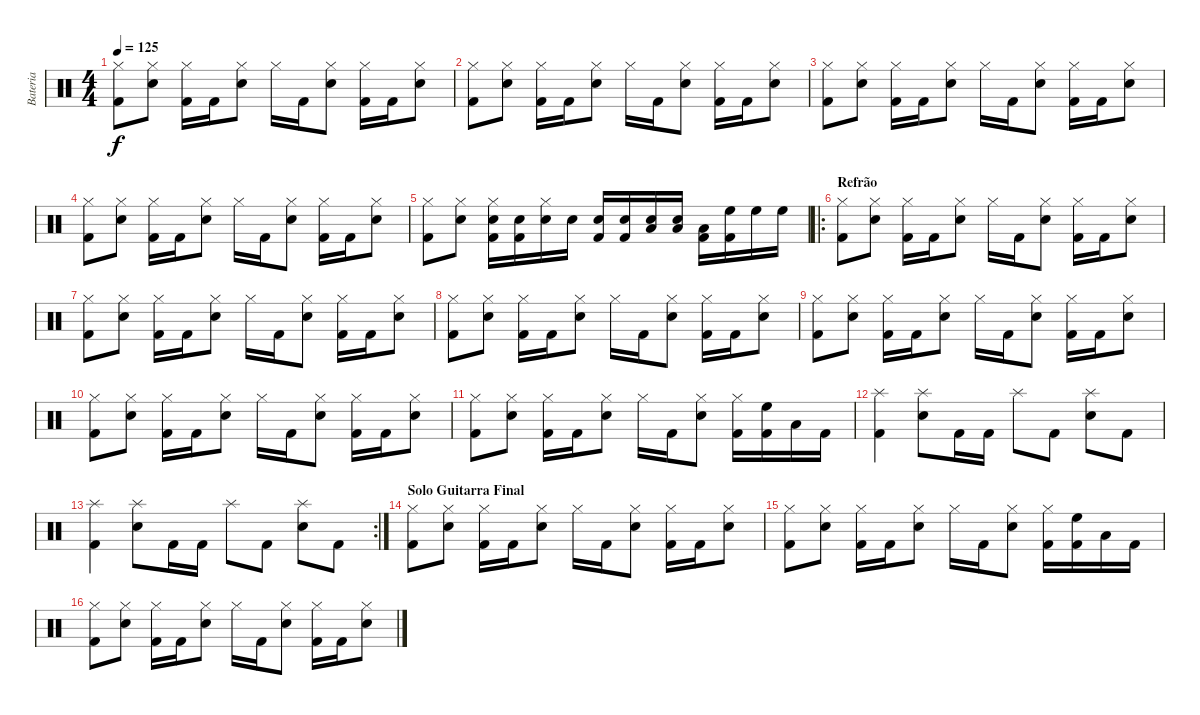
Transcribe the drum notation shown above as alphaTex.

\track ("Bateria" "Bateria") {instrument percussion}
\staff {score}
\articulation defaults
\ts (4 4)
\tempo 125
\clef neutral
\ks c
("Hi-Hat (closed)" "Kick (hit) 2").8{dy f} ("Hi-Hat (closed)" "Snare (hit) 2").8 ("Hi-Hat (closed)" "Kick (hit) 2").16 "Kick (hit) 2".16 ("Hi-Hat (closed)" "Snare (hit) 2").8 "Hi-Hat (closed)".16 "Kick (hit) 2".16 ("Hi-Hat (closed)" "Snare (hit) 2").8 ("Hi-Hat (closed)" "Kick (hit) 2").16 "Kick (hit) 2".16 ("Hi-Hat (closed)" "Snare (hit) 2").8 |
("Hi-Hat (closed)" "Kick (hit) 2").8 ("Hi-Hat (closed)" "Snare (hit) 2").8 ("Hi-Hat (closed)" "Kick (hit) 2").16 "Kick (hit) 2".16 ("Hi-Hat (closed)" "Snare (hit) 2").8 "Hi-Hat (closed)".16 "Kick (hit) 2".16 ("Hi-Hat (closed)" "Snare (hit) 2").8 ("Hi-Hat (closed)" "Kick (hit) 2").16 "Kick (hit) 2".16 ("Hi-Hat (closed)" "Snare (hit) 2").8 |
("Hi-Hat (closed)" "Kick (hit) 2").8 ("Hi-Hat (closed)" "Snare (hit) 2").8 ("Hi-Hat (closed)" "Kick (hit) 2").16 "Kick (hit) 2".16 ("Hi-Hat (closed)" "Snare (hit) 2").8 "Hi-Hat (closed)".16 "Kick (hit) 2".16 ("Hi-Hat (closed)" "Snare (hit) 2").8 ("Hi-Hat (closed)" "Kick (hit) 2").16 "Kick (hit) 2".16 ("Hi-Hat (closed)" "Snare (hit) 2").8 |
("Hi-Hat (closed)" "Kick (hit) 2").8 ("Hi-Hat (closed)" "Snare (hit) 2").8 ("Hi-Hat (closed)" "Kick (hit) 2").16 "Kick (hit) 2".16 ("Hi-Hat (closed)" "Snare (hit) 2").8 "Hi-Hat (closed)".16 "Kick (hit) 2".16 ("Hi-Hat (closed)" "Snare (hit) 2").8 ("Hi-Hat (closed)" "Kick (hit) 2").16 "Kick (hit) 2".16 ("Hi-Hat (closed)" "Snare (hit) 2").8 |
("Hi-Hat (closed)" "Kick (hit) 2").8 ("Hi-Hat (closed)" "Snare (hit) 2").8 ("Hi-Hat (closed)" "Snare (hit) 2" "Kick (hit) 2").16 ("Snare (hit) 2" "Kick (hit) 2").16 ("Hi-Hat (closed)" "Snare (hit) 2").16 "Snare (hit) 2".16 ("Snare (hit) 2" "Kick (hit) 2").16 ("Snare (hit) 2" "Kick (hit) 2").16 ("Low Tom (hit)" "Snare (hit) 2").16 ("Low Tom (hit)" "Snare (hit) 2").16 ("Low Tom (hit)" "Kick (hit) 2").16 ("High Floor Tom (hit)" "Kick (hit) 2").16 "High Floor Tom (hit)".16 "High Floor Tom (hit)".16 |
\ro
\section ("" "Refrão")
("Hi-Hat (closed)" "Kick (hit) 2").8 ("Hi-Hat (closed)" "Snare (hit) 2").8 ("Hi-Hat (closed)" "Kick (hit) 2").16 "Kick (hit) 2".16 ("Hi-Hat (closed)" "Snare (hit) 2").8 "Hi-Hat (closed)".16 "Kick (hit) 2".16 ("Hi-Hat (closed)" "Snare (hit) 2").8 ("Hi-Hat (closed)" "Kick (hit) 2").16 "Kick (hit) 2".16 ("Hi-Hat (closed)" "Snare (hit) 2").8 |
("Hi-Hat (closed)" "Kick (hit) 2").8 ("Hi-Hat (closed)" "Snare (hit) 2").8 ("Hi-Hat (closed)" "Kick (hit) 2").16 "Kick (hit) 2".16 ("Hi-Hat (closed)" "Snare (hit) 2").8 "Hi-Hat (closed)".16 "Kick (hit) 2".16 ("Hi-Hat (closed)" "Snare (hit) 2").8 ("Hi-Hat (closed)" "Kick (hit) 2").16 "Kick (hit) 2".16 ("Hi-Hat (closed)" "Snare (hit) 2").8 |
("Hi-Hat (closed)" "Kick (hit) 2").8 ("Hi-Hat (closed)" "Snare (hit) 2").8 ("Hi-Hat (closed)" "Kick (hit) 2").16 "Kick (hit) 2".16 ("Hi-Hat (closed)" "Snare (hit) 2").8 "Hi-Hat (closed)".16 "Kick (hit) 2".16 ("Hi-Hat (closed)" "Snare (hit) 2").8 ("Hi-Hat (closed)" "Kick (hit) 2").16 "Kick (hit) 2".16 ("Hi-Hat (closed)" "Snare (hit) 2").8 |
("Hi-Hat (closed)" "Kick (hit) 2").8 ("Hi-Hat (closed)" "Snare (hit) 2").8 ("Hi-Hat (closed)" "Kick (hit) 2").16 "Kick (hit) 2".16 ("Hi-Hat (closed)" "Snare (hit) 2").8 "Hi-Hat (closed)".16 "Kick (hit) 2".16 ("Hi-Hat (closed)" "Snare (hit) 2").8 ("Hi-Hat (closed)" "Kick (hit) 2").16 "Kick (hit) 2".16 ("Hi-Hat (closed)" "Snare (hit) 2").8 |
("Hi-Hat (closed)" "Kick (hit) 2").8 ("Hi-Hat (closed)" "Snare (hit) 2").8 ("Hi-Hat (closed)" "Kick (hit) 2").16 "Kick (hit) 2".16 ("Hi-Hat (closed)" "Snare (hit) 2").8 "Hi-Hat (closed)".16 "Kick (hit) 2".16 ("Hi-Hat (closed)" "Snare (hit) 2").8 ("Hi-Hat (closed)" "Kick (hit) 2").16 "Kick (hit) 2".16 ("Hi-Hat (closed)" "Snare (hit) 2").8 |
("Hi-Hat (closed)" "Kick (hit) 2").8 ("Hi-Hat (closed)" "Snare (hit) 2").8 ("Hi-Hat (closed)" "Kick (hit) 2").16 "Kick (hit) 2".16 ("Hi-Hat (closed)" "Snare (hit) 2").8 "Hi-Hat (closed)".16 "Kick (hit) 2".16 ("Hi-Hat (closed)" "Snare (hit) 2").8 ("Hi-Hat (closed)" "Kick (hit) 2").16 ("High Floor Tom (hit)" "Kick (hit) 2").16 "Low Tom (hit)".16 "Kick (hit) 2".16 |
("Splash (hit)" "Kick (hit) 2").4 ("Splash (hit)" "Snare (hit) 2").8 "Kick (hit) 2".16 "Kick (hit) 2".16 "Splash (hit)".8 "Kick (hit) 2".8 ("Splash (hit)" "Snare (hit) 2").8 "Kick (hit) 2".8 |
\rc 2
("Splash (hit)" "Kick (hit) 2").4 ("Splash (hit)" "Snare (hit) 2").8 "Kick (hit) 2".16 "Kick (hit) 2".16 "Splash (hit)".8 "Kick (hit) 2".8 ("Splash (hit)" "Snare (hit) 2").8 "Kick (hit) 2".8 |
\section ("" "Solo Guitarra Final")
("Hi-Hat (closed)" "Kick (hit) 2").8 ("Hi-Hat (closed)" "Snare (hit) 2").8 ("Hi-Hat (closed)" "Kick (hit) 2").16 "Kick (hit) 2".16 ("Hi-Hat (closed)" "Snare (hit) 2").8 "Hi-Hat (closed)".16 "Kick (hit) 2".16 ("Hi-Hat (closed)" "Snare (hit) 2").8 ("Hi-Hat (closed)" "Kick (hit) 2").16 "Kick (hit) 2".16 ("Hi-Hat (closed)" "Snare (hit) 2").8 |
("Hi-Hat (closed)" "Kick (hit) 2").8 ("Hi-Hat (closed)" "Snare (hit) 2").8 ("Hi-Hat (closed)" "Kick (hit) 2").16 "Kick (hit) 2".16 ("Hi-Hat (closed)" "Snare (hit) 2").8 "Hi-Hat (closed)".16 "Kick (hit) 2".16 ("Hi-Hat (closed)" "Snare (hit) 2").8 ("Hi-Hat (closed)" "Kick (hit) 2").16 ("High Floor Tom (hit)" "Kick (hit) 2").16 "Low Tom (hit)".16 "Kick (hit) 2".16 |
("Hi-Hat (closed)" "Kick (hit) 2").8 ("Hi-Hat (closed)" "Snare (hit) 2").8 ("Hi-Hat (closed)" "Kick (hit) 2").16 "Kick (hit) 2".16 ("Hi-Hat (closed)" "Snare (hit) 2").8 "Hi-Hat (closed)".16 "Kick (hit) 2".16 ("Hi-Hat (closed)" "Snare (hit) 2").8 ("Hi-Hat (closed)" "Kick (hit) 2").16 "Kick (hit) 2".16 ("Hi-Hat (closed)" "Snare (hit) 2").8
